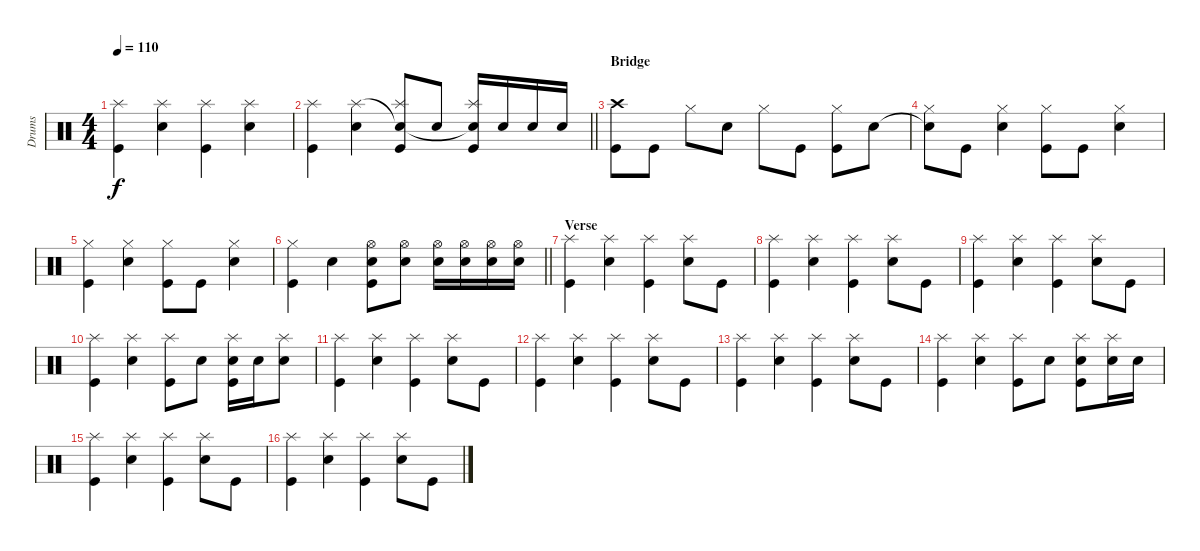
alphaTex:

\track ("Drums" "Drums") {instrument percussion}
\staff {score}
\articulation defaults
\ts (4 4)
\tempo 110
\clef neutral
\ks c
("Kick (hit)" "Splash (hit)").4{dy f} ("Electric Snare (hit)" "Splash (hit)").4 ("Kick (hit)" "Splash (hit)").4 ("Electric Snare (hit)" "Splash (hit)").4 |
\barLineRight lightlight
("Kick (hit)" "Splash (hit)").4 ("Electric Snare (hit)" "Splash (hit)").4 ("Kick (hit)" "Electric Snare (hit)"{t} "Splash (hit)").8 "Electric Snare (hit)".8 ("Kick (hit)" "Electric Snare (hit)"{t} "Splash (hit)").16 "Electric Snare (hit)".16 "Electric Snare (hit)".16 "Electric Snare (hit)".16 |
\section ("" "Bridge")
("Kick (hit)" "Crash high (hit)").8 "Kick (hit)".8 "Hi-Hat (closed)".8 "Electric Snare (hit)".8 "Hi-Hat (closed)".8 "Kick (hit)".8 ("Kick (hit)" "Hi-Hat (closed)").8 "Electric Snare (hit)".8 |
("Electric Snare (hit)"{t} "Hi-Hat (closed)").8 "Kick (hit)".8 ("Electric Snare (hit)" "Hi-Hat (closed)").4 ("Kick (hit)" "Hi-Hat (closed)").8 "Kick (hit)".8 ("Electric Snare (hit)" "Hi-Hat (closed)").4 |
("Kick (hit)" "Hi-Hat (closed)").4 ("Electric Snare (hit)" "Hi-Hat (closed)").4 ("Kick (hit)" "Hi-Hat (closed)").8 "Kick (hit)".8 ("Electric Snare (hit)" "Hi-Hat (closed)").4 |
\barLineRight lightlight
("Kick (hit)" "Hi-Hat (closed)").4 "Electric Snare (hit)".4 ("Kick (hit)" "Electric Snare (hit)" "Hi-Hat (open)").8 ("Electric Snare (hit)" "Hi-Hat (open)").8 ("Electric Snare (hit)" "Hi-Hat (open)").16 ("Electric Snare (hit)" "Hi-Hat (open)").16 ("Electric Snare (hit)" "Hi-Hat (open)").16 ("Electric Snare (hit)" "Hi-Hat (open)").16 |
\section ("" "Verse")
("Kick (hit)" "Splash (hit)").4 ("Electric Snare (hit)" "Splash (hit)").4 ("Kick (hit)" "Splash (hit)").4 ("Electric Snare (hit)" "Splash (hit)").8 "Kick (hit)".8 |
("Kick (hit)" "Splash (hit)").4 ("Electric Snare (hit)" "Splash (hit)").4 ("Kick (hit)" "Splash (hit)").4 ("Electric Snare (hit)" "Splash (hit)").8 "Kick (hit)".8 |
("Kick (hit)" "Splash (hit)").4 ("Electric Snare (hit)" "Splash (hit)").4 ("Kick (hit)" "Splash (hit)").4 ("Electric Snare (hit)" "Splash (hit)").8 "Kick (hit)".8 |
("Kick (hit)" "Splash (hit)").4 ("Electric Snare (hit)" "Splash (hit)").4 ("Kick (hit)" "Splash (hit)").8 "Electric Snare (hit)".8 ("Kick (hit)" "Electric Snare (hit)" "Splash (hit)").16 "Electric Snare (hit)".16 ("Electric Snare (hit)" "Splash (hit)").8 |
("Kick (hit)" "Splash (hit)").4 ("Electric Snare (hit)" "Splash (hit)").4 ("Kick (hit)" "Splash (hit)").4 ("Electric Snare (hit)" "Splash (hit)").8 "Kick (hit)".8 |
("Kick (hit)" "Splash (hit)").4 ("Electric Snare (hit)" "Splash (hit)").4 ("Kick (hit)" "Splash (hit)").4 ("Electric Snare (hit)" "Splash (hit)").8 "Kick (hit)".8 |
("Kick (hit)" "Splash (hit)").4 ("Electric Snare (hit)" "Splash (hit)").4 ("Kick (hit)" "Splash (hit)").4 ("Electric Snare (hit)" "Splash (hit)").8 "Kick (hit)".8 |
("Kick (hit)" "Splash (hit)").4 ("Electric Snare (hit)" "Splash (hit)").4 ("Kick (hit)" "Splash (hit)").8 "Electric Snare (hit)".8 ("Kick (hit)" "Electric Snare (hit)" "Splash (hit)").8 ("Electric Snare (hit)" "Splash (hit)").16 "Electric Snare (hit)".16 |
("Kick (hit)" "Splash (hit)").4 ("Electric Snare (hit)" "Splash (hit)").4 ("Kick (hit)" "Splash (hit)").4 ("Electric Snare (hit)" "Splash (hit)").8 "Kick (hit)".8 |
("Kick (hit)" "Splash (hit)").4 ("Electric Snare (hit)" "Splash (hit)").4 ("Kick (hit)" "Splash (hit)").4 ("Electric Snare (hit)" "Splash (hit)").8 "Kick (hit)".8
